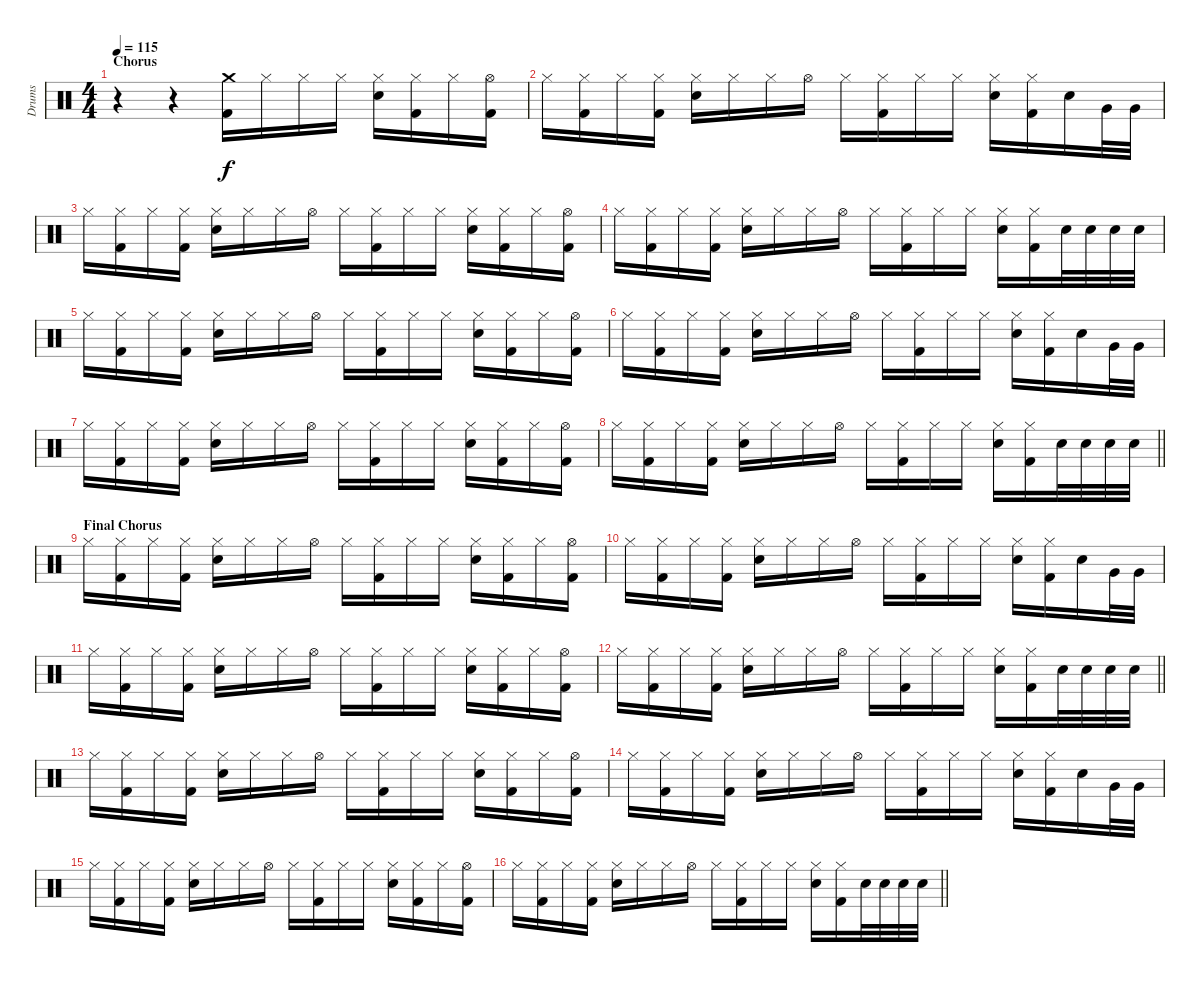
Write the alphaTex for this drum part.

\track ("Drums" "Drums") {instrument percussion}
\staff {score}
\articulation defaults
\ts (4 4)
\section ("" "Chorus")
\tempo 115
\clef neutral
\ks c
r.4{dy f} r.4 ("Crash medium (hit)" "Kick (hit) 2").16 "Hi-Hat (closed)".16 "Hi-Hat (closed)".16 "Hi-Hat (closed)".16 ("Hi-Hat (closed)" "Electric Snare (hit)").16 ("Hi-Hat (closed)" "Kick (hit) 2").16 "Hi-Hat (closed)".16 ("Hi-Hat (open)" "Kick (hit) 2").16 |
"Hi-Hat (closed)".16 ("Hi-Hat (closed)" "Kick (hit) 2").16 "Hi-Hat (closed)".16 ("Hi-Hat (closed)" "Kick (hit) 2").16 ("Hi-Hat (closed)" "Electric Snare (hit)").16 "Hi-Hat (closed)".16 "Hi-Hat (closed)".16 "Hi-Hat (open)".16 "Hi-Hat (closed)".16 ("Hi-Hat (closed)" "Kick (hit) 2").16 "Hi-Hat (closed)".16 "Hi-Hat (closed)".16 ("Hi-Hat (closed)" "Electric Snare (hit)").16 ("Hi-Hat (closed)" "Kick (hit) 2").16 "Electric Snare (hit)".16 "Very Low Tom (hit)".32 "Very Low Tom (hit)".32 |
"Hi-Hat (closed)".16 ("Hi-Hat (closed)" "Kick (hit) 2").16 "Hi-Hat (closed)".16 ("Hi-Hat (closed)" "Kick (hit) 2").16 ("Hi-Hat (closed)" "Electric Snare (hit)").16 "Hi-Hat (closed)".16 "Hi-Hat (closed)".16 "Hi-Hat (open)".16 "Hi-Hat (closed)".16 ("Hi-Hat (closed)" "Kick (hit) 2").16 "Hi-Hat (closed)".16 "Hi-Hat (closed)".16 ("Hi-Hat (closed)" "Electric Snare (hit)").16 ("Hi-Hat (closed)" "Kick (hit) 2").16 "Hi-Hat (closed)".16 ("Hi-Hat (open)" "Kick (hit) 2").16 |
"Hi-Hat (closed)".16 ("Hi-Hat (closed)" "Kick (hit) 2").16 "Hi-Hat (closed)".16 ("Hi-Hat (closed)" "Kick (hit) 2").16 ("Hi-Hat (closed)" "Electric Snare (hit)").16 "Hi-Hat (closed)".16 "Hi-Hat (closed)".16 "Hi-Hat (open)".16 "Hi-Hat (closed)".16 ("Hi-Hat (closed)" "Kick (hit) 2").16 "Hi-Hat (closed)".16 "Hi-Hat (closed)".16 ("Hi-Hat (closed)" "Electric Snare (hit)").16 ("Hi-Hat (closed)" "Kick (hit) 2").16 "Electric Snare (hit)".32 "Electric Snare (hit)".32 "Electric Snare (hit)".32 "Electric Snare (hit)".32 |
"Hi-Hat (closed)".16 ("Hi-Hat (closed)" "Kick (hit) 2").16 "Hi-Hat (closed)".16 ("Hi-Hat (closed)" "Kick (hit) 2").16 ("Hi-Hat (closed)" "Electric Snare (hit)").16 "Hi-Hat (closed)".16 "Hi-Hat (closed)".16 "Hi-Hat (open)".16 "Hi-Hat (closed)".16 ("Hi-Hat (closed)" "Kick (hit) 2").16 "Hi-Hat (closed)".16 "Hi-Hat (closed)".16 ("Hi-Hat (closed)" "Electric Snare (hit)").16 ("Hi-Hat (closed)" "Kick (hit) 2").16 "Hi-Hat (closed)".16 ("Hi-Hat (open)" "Kick (hit) 2").16 |
"Hi-Hat (closed)".16 ("Hi-Hat (closed)" "Kick (hit) 2").16 "Hi-Hat (closed)".16 ("Hi-Hat (closed)" "Kick (hit) 2").16 ("Hi-Hat (closed)" "Electric Snare (hit)").16 "Hi-Hat (closed)".16 "Hi-Hat (closed)".16 "Hi-Hat (open)".16 "Hi-Hat (closed)".16 ("Hi-Hat (closed)" "Kick (hit) 2").16 "Hi-Hat (closed)".16 "Hi-Hat (closed)".16 ("Hi-Hat (closed)" "Electric Snare (hit)").16 ("Hi-Hat (closed)" "Kick (hit) 2").16 "Electric Snare (hit)".16 "Very Low Tom (hit)".32 "Very Low Tom (hit)".32 |
"Hi-Hat (closed)".16 ("Hi-Hat (closed)" "Kick (hit) 2").16 "Hi-Hat (closed)".16 ("Hi-Hat (closed)" "Kick (hit) 2").16 ("Hi-Hat (closed)" "Electric Snare (hit)").16 "Hi-Hat (closed)".16 "Hi-Hat (closed)".16 "Hi-Hat (open)".16 "Hi-Hat (closed)".16 ("Hi-Hat (closed)" "Kick (hit) 2").16 "Hi-Hat (closed)".16 "Hi-Hat (closed)".16 ("Hi-Hat (closed)" "Electric Snare (hit)").16 ("Hi-Hat (closed)" "Kick (hit) 2").16 "Hi-Hat (closed)".16 ("Hi-Hat (open)" "Kick (hit) 2").16 |
\barLineRight lightlight "Hi-Hat (closed)".16
("Hi-Hat (closed)" "Kick (hit) 2").16 "Hi-Hat (closed)".16 ("Hi-Hat (closed)" "Kick (hit) 2").16 ("Hi-Hat (closed)" "Electric Snare (hit)").16 "Hi-Hat (closed)".16 "Hi-Hat (closed)".16 "Hi-Hat (open)".16 "Hi-Hat (closed)".16 ("Hi-Hat (closed)" "Kick (hit) 2").16 "Hi-Hat (closed)".16 "Hi-Hat (closed)".16 ("Hi-Hat (closed)" "Electric Snare (hit)").16 ("Hi-Hat (closed)" "Kick (hit) 2").16 "Electric Snare (hit)".32 "Electric Snare (hit)".32 "Electric Snare (hit)".32 "Electric Snare (hit)".32 |
\section ("" "Final Chorus")
"Hi-Hat (closed)".16 ("Hi-Hat (closed)" "Kick (hit) 2").16 "Hi-Hat (closed)".16 ("Hi-Hat (closed)" "Kick (hit) 2").16 ("Hi-Hat (closed)" "Electric Snare (hit)").16 "Hi-Hat (closed)".16 "Hi-Hat (closed)".16 "Hi-Hat (open)".16 "Hi-Hat (closed)".16 ("Hi-Hat (closed)" "Kick (hit) 2").16 "Hi-Hat (closed)".16 "Hi-Hat (closed)".16 ("Hi-Hat (closed)" "Electric Snare (hit)").16 ("Hi-Hat (closed)" "Kick (hit) 2").16 "Hi-Hat (closed)".16 ("Hi-Hat (open)" "Kick (hit) 2").16 |
"Hi-Hat (closed)".16 ("Hi-Hat (closed)" "Kick (hit) 2").16 "Hi-Hat (closed)".16 ("Hi-Hat (closed)" "Kick (hit) 2").16 ("Hi-Hat (closed)" "Electric Snare (hit)").16 "Hi-Hat (closed)".16 "Hi-Hat (closed)".16 "Hi-Hat (open)".16 "Hi-Hat (closed)".16 ("Hi-Hat (closed)" "Kick (hit) 2").16 "Hi-Hat (closed)".16 "Hi-Hat (closed)".16 ("Hi-Hat (closed)" "Electric Snare (hit)").16 ("Hi-Hat (closed)" "Kick (hit) 2").16 "Electric Snare (hit)".16 "Very Low Tom (hit)".32 "Very Low Tom (hit)".32 |
"Hi-Hat (closed)".16 ("Hi-Hat (closed)" "Kick (hit) 2").16 "Hi-Hat (closed)".16 ("Hi-Hat (closed)" "Kick (hit) 2").16 ("Hi-Hat (closed)" "Electric Snare (hit)").16 "Hi-Hat (closed)".16 "Hi-Hat (closed)".16 "Hi-Hat (open)".16 "Hi-Hat (closed)".16 ("Hi-Hat (closed)" "Kick (hit) 2").16 "Hi-Hat (closed)".16 "Hi-Hat (closed)".16 ("Hi-Hat (closed)" "Electric Snare (hit)").16 ("Hi-Hat (closed)" "Kick (hit) 2").16 "Hi-Hat (closed)".16 ("Hi-Hat (open)" "Kick (hit) 2").16 |
\barLineRight lightlight "Hi-Hat (closed)".16
("Hi-Hat (closed)" "Kick (hit) 2").16 "Hi-Hat (closed)".16 ("Hi-Hat (closed)" "Kick (hit) 2").16 ("Hi-Hat (closed)" "Electric Snare (hit)").16 "Hi-Hat (closed)".16 "Hi-Hat (closed)".16 "Hi-Hat (open)".16 "Hi-Hat (closed)".16 ("Hi-Hat (closed)" "Kick (hit) 2").16 "Hi-Hat (closed)".16 "Hi-Hat (closed)".16 ("Hi-Hat (closed)" "Electric Snare (hit)").16 ("Hi-Hat (closed)" "Kick (hit) 2").16 "Electric Snare (hit)".32 "Electric Snare (hit)".32 "Electric Snare (hit)".32 "Electric Snare (hit)".32 |
"Hi-Hat (closed)".16 ("Hi-Hat (closed)" "Kick (hit) 2").16 "Hi-Hat (closed)".16 ("Hi-Hat (closed)" "Kick (hit) 2").16 ("Hi-Hat (closed)" "Electric Snare (hit)").16 "Hi-Hat (closed)".16 "Hi-Hat (closed)".16 "Hi-Hat (open)".16 "Hi-Hat (closed)".16 ("Hi-Hat (closed)" "Kick (hit) 2").16 "Hi-Hat (closed)".16 "Hi-Hat (closed)".16 ("Hi-Hat (closed)" "Electric Snare (hit)").16 ("Hi-Hat (closed)" "Kick (hit) 2").16 "Hi-Hat (closed)".16 ("Hi-Hat (open)" "Kick (hit) 2").16 |
"Hi-Hat (closed)".16 ("Hi-Hat (closed)" "Kick (hit) 2").16 "Hi-Hat (closed)".16 ("Hi-Hat (closed)" "Kick (hit) 2").16 ("Hi-Hat (closed)" "Electric Snare (hit)").16 "Hi-Hat (closed)".16 "Hi-Hat (closed)".16 "Hi-Hat (open)".16 "Hi-Hat (closed)".16 ("Hi-Hat (closed)" "Kick (hit) 2").16 "Hi-Hat (closed)".16 "Hi-Hat (closed)".16 ("Hi-Hat (closed)" "Electric Snare (hit)").16 ("Hi-Hat (closed)" "Kick (hit) 2").16 "Electric Snare (hit)".16 "Very Low Tom (hit)".32 "Very Low Tom (hit)".32 |
"Hi-Hat (closed)".16 ("Hi-Hat (closed)" "Kick (hit) 2").16 "Hi-Hat (closed)".16 ("Hi-Hat (closed)" "Kick (hit) 2").16 ("Hi-Hat (closed)" "Electric Snare (hit)").16 "Hi-Hat (closed)".16 "Hi-Hat (closed)".16 "Hi-Hat (open)".16 "Hi-Hat (closed)".16 ("Hi-Hat (closed)" "Kick (hit) 2").16 "Hi-Hat (closed)".16 "Hi-Hat (closed)".16 ("Hi-Hat (closed)" "Electric Snare (hit)").16 ("Hi-Hat (closed)" "Kick (hit) 2").16 "Hi-Hat (closed)".16 ("Hi-Hat (open)" "Kick (hit) 2").16 |
\barLineRight lightlight "Hi-Hat (closed)".16
("Hi-Hat (closed)" "Kick (hit) 2").16 "Hi-Hat (closed)".16 ("Hi-Hat (closed)" "Kick (hit) 2").16 ("Hi-Hat (closed)" "Electric Snare (hit)").16 "Hi-Hat (closed)".16 "Hi-Hat (closed)".16 "Hi-Hat (open)".16 "Hi-Hat (closed)".16 ("Hi-Hat (closed)" "Kick (hit) 2").16 "Hi-Hat (closed)".16 "Hi-Hat (closed)".16 ("Hi-Hat (closed)" "Electric Snare (hit)").16 ("Hi-Hat (closed)" "Kick (hit) 2").16 "Electric Snare (hit)".32 "Electric Snare (hit)".32 "Electric Snare (hit)".32 "Electric Snare (hit)".32
